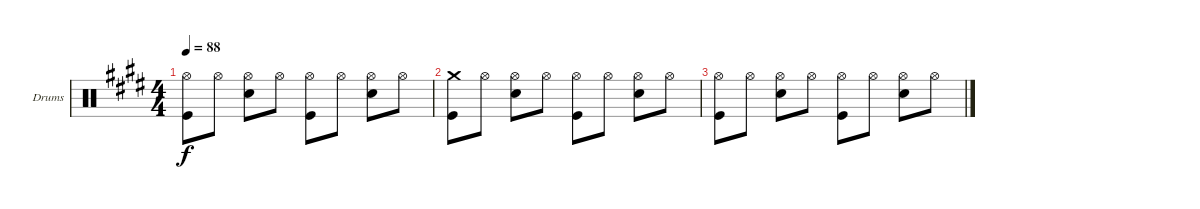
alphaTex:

\defaultSystemsLayout 4
\bracketExtendMode groupsimilarinstruments
\firstSystemTrackNameOrientation horizontal
\otherSystemsTrackNameOrientation horizontal
\track ("Drumkit" "Drums") {instrument percussion}
\staff {score}
\articulation defaults
\ts (4 4)
\tempo 88
\clef neutral
\ks e
("Kick (hit)" "Hi-Hat (open)").8{dy f} "Hi-Hat (open)".8 ("Hi-Hat (open)" "Snare (hit) 2").8 "Hi-Hat (open)".8 ("Kick (hit)" "Hi-Hat (open)").8 "Hi-Hat (open)".8 ("Hi-Hat (open)" "Snare (hit) 2").8 "Hi-Hat (open)".8 |
("Kick (hit)" "Crash medium (hit)").8 "Hi-Hat (open)".8 ("Hi-Hat (open)" "Snare (hit) 2").8 "Hi-Hat (open)".8 ("Kick (hit)" "Hi-Hat (open)").8 "Hi-Hat (open)".8 ("Hi-Hat (open)" "Snare (hit) 2").8 "Hi-Hat (open)".8 |
("Kick (hit)" "Hi-Hat (open)").8 "Hi-Hat (open)".8 ("Hi-Hat (open)" "Snare (hit) 2").8 "Hi-Hat (open)".8 ("Kick (hit)" "Hi-Hat (open)").8 "Hi-Hat (open)".8 ("Hi-Hat (open)" "Snare (hit) 2").8 "Hi-Hat (open)".8
